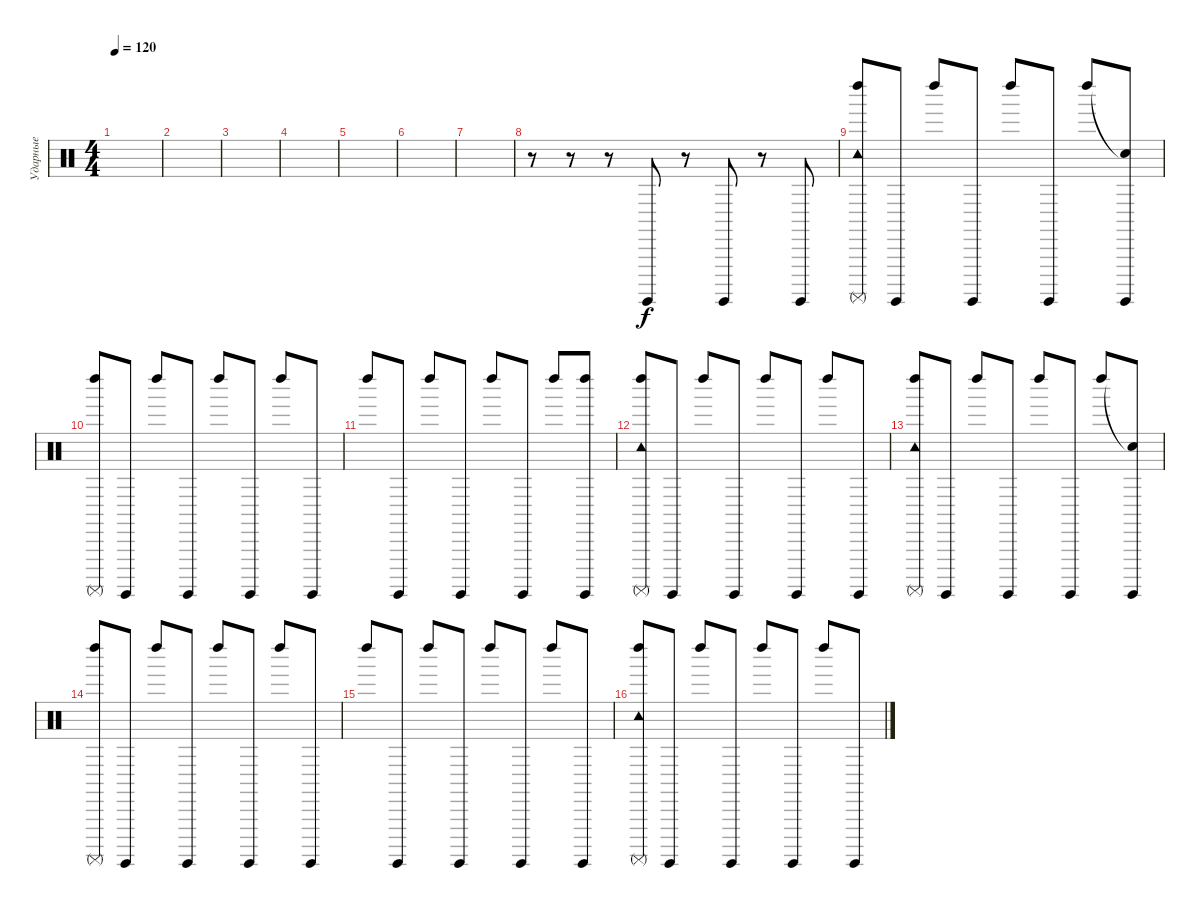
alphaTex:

\track ("Ударные" "Ударные") {instrument percussion}
\staff {score}
\articulation defaults
\ts (4 4)
\tempo 120
\clef neutral
\ks c
|
|
|
|
|
|
|
r.8 r.8 r.8 "Surdo (hit)".8 r.8 "Surdo (hit)".8 r.8 "Surdo (hit)".8 |
("Tambourine (hit)" "Surdo (mute)" "Left Maraca (hit)").8 "Surdo (hit)".8 "Left Maraca (hit)".8 "Surdo (hit)".8 "Left Maraca (hit)".8 "Surdo (hit)".8 "Left Maraca (hit)".8 ("Snare (hit)"{t} "Surdo (hit)").8 |
("Surdo (mute)" "Left Maraca (hit)").8 "Surdo (hit)".8 "Left Maraca (hit)".8 "Surdo (hit)".8 "Left Maraca (hit)".8 "Surdo (hit)".8 "Left Maraca (hit)".8 "Surdo (hit)".8 |
"Left Maraca (hit)".8 "Surdo (hit)".8 "Left Maraca (hit)".8 "Surdo (hit)".8 "Left Maraca (hit)".8 "Surdo (hit)".8 "Left Maraca (hit)".8 ("Surdo (hit)" "Left Maraca (hit)").8 |
("Tambourine (hit)" "Surdo (mute)" "Left Maraca (hit)").8 "Surdo (hit)".8 "Left Maraca (hit)".8 "Surdo (hit)".8 "Left Maraca (hit)".8 "Surdo (hit)".8 "Left Maraca (hit)".8 "Surdo (hit)".8 |
("Tambourine (hit)" "Surdo (mute)" "Left Maraca (hit)").8 "Surdo (hit)".8 "Left Maraca (hit)".8 "Surdo (hit)".8 "Left Maraca (hit)".8 "Surdo (hit)".8 "Left Maraca (hit)".8 ("Snare (hit)"{t} "Surdo (hit)").8 |
("Surdo (mute)" "Left Maraca (hit)").8 "Surdo (hit)".8 "Left Maraca (hit)".8 "Surdo (hit)".8 "Left Maraca (hit)".8 "Surdo (hit)".8 "Left Maraca (hit)".8 "Surdo (hit)".8 |
"Left Maraca (hit)".8 "Surdo (hit)".8 "Left Maraca (hit)".8 "Surdo (hit)".8 "Left Maraca (hit)".8 "Surdo (hit)".8 "Left Maraca (hit)".8 "Surdo (hit)".8 |
("Tambourine (hit)" "Surdo (mute)" "Left Maraca (hit)").8 "Surdo (hit)".8 "Left Maraca (hit)".8 "Surdo (hit)".8 "Left Maraca (hit)".8 "Surdo (hit)".8 "Left Maraca (hit)".8 "Surdo (hit)".8
